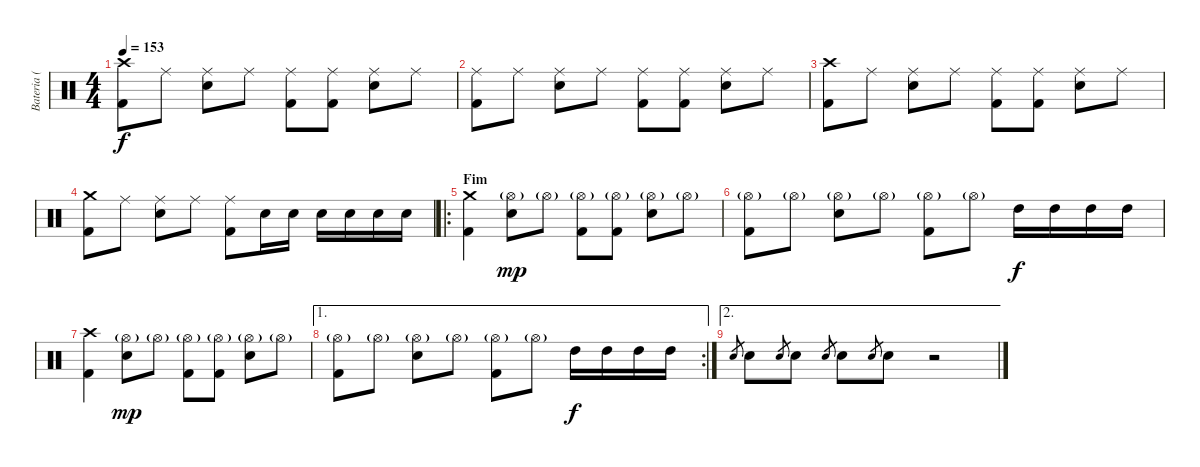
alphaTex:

\track ("Bateria ( Marky Ramone)" "Bateria ( ") {instrument percussion}
\staff {score}
\articulation defaults
\ts (4 4)
\tempo 153
\clef neutral
\ks c
("Crash high (hit)" "Kick (hit) 2").8{dy f} "Ride (middle)".8 ("Ride (middle)" "Electric Snare (hit)").8 "Ride (middle)".8 ("Ride (middle)" "Kick (hit) 2").8 ("Ride (middle)" "Kick (hit) 2").8 ("Ride (middle)" "Electric Snare (hit)").8 "Ride (middle)".8 |
("Ride (middle)" "Kick (hit) 2").8 "Ride (middle)".8 ("Ride (middle)" "Electric Snare (hit)").8 "Ride (middle)".8 ("Ride (middle)" "Kick (hit) 2").8 ("Ride (middle)" "Kick (hit) 2").8 ("Ride (middle)" "Electric Snare (hit)").8 "Ride (middle)".8 |
("Crash high (hit)" "Kick (hit) 2").8 "Ride (middle)".8 ("Ride (middle)" "Electric Snare (hit)").8 "Ride (middle)".8 ("Ride (middle)" "Kick (hit) 2").8 ("Ride (middle)" "Kick (hit) 2").8 ("Ride (middle)" "Electric Snare (hit)").8 "Ride (middle)".8 |
("Crash medium (hit)" "Kick (hit) 2").8 "Ride (middle)".8 ("Ride (middle)" "Electric Snare (hit)").8 "Ride (middle)".8 ("Ride (middle)" "Kick (hit) 2").8 "Electric Snare (hit)".16 "Electric Snare (hit)".16 "Electric Snare (hit)".16 "Electric Snare (hit)".16 "Electric Snare (hit)".16 "Electric Snare (hit)".16 |
\ro
\section ("" "Fim")
("Crash medium (hit)" "Kick (hit) 2").4 ("Hi-Hat (open)"{g} "Electric Snare (hit)").8{dy mp} "Hi-Hat (open)"{g}.8 ("Hi-Hat (open)"{g} "Kick (hit) 2").8 ("Hi-Hat (open)"{g} "Kick (hit) 2").8 ("Hi-Hat (open)"{g} "Electric Snare (hit)").8 "Hi-Hat (open)"{g}.8 |
("Hi-Hat (open)"{g} "Kick (hit) 2").8 "Hi-Hat (open)"{g}.8 ("Hi-Hat (open)"{g} "Electric Snare (hit)").8 "Hi-Hat (open)"{g}.8 ("Hi-Hat (open)"{g} "Kick (hit) 2").8 "Hi-Hat (open)"{g}.8 "High Tom (hit)".16{dy f} "High Tom (hit)".16 "High Tom (hit)".16 "High Tom (hit)".16 |
("Crash high (hit)" "Kick (hit) 2").4 ("Hi-Hat (open)"{g} "Electric Snare (hit)").8{dy mp} "Hi-Hat (open)"{g}.8 ("Hi-Hat (open)"{g} "Kick (hit) 2").8 ("Hi-Hat (open)"{g} "Kick (hit) 2").8 ("Hi-Hat (open)"{g} "Electric Snare (hit)").8 "Hi-Hat (open)"{g}.8 |
\ae 1
\rc 2
("Hi-Hat (open)"{g} "Kick (hit) 2").8 "Hi-Hat (open)"{g}.8 ("Hi-Hat (open)"{g} "Electric Snare (hit)").8 "Hi-Hat (open)"{g}.8 ("Hi-Hat (open)"{g} "Kick (hit) 2").8 "Hi-Hat (open)"{g}.8 "High Tom (hit)".16{dy f} "High Tom (hit)".16 "High Tom (hit)".16 "High Tom (hit)".16 |
\ae 2 "Electric Snare (hit)".8{gr} "Electric Snare (hit)".8 "Electric Snare (hit)".8{gr} "Electric Snare (hit)".8 "Electric Snare (hit)".8{gr} "Electric Snare (hit)".8 "Electric Snare (hit)".8{gr} "Electric Snare (hit)".8
r.2
